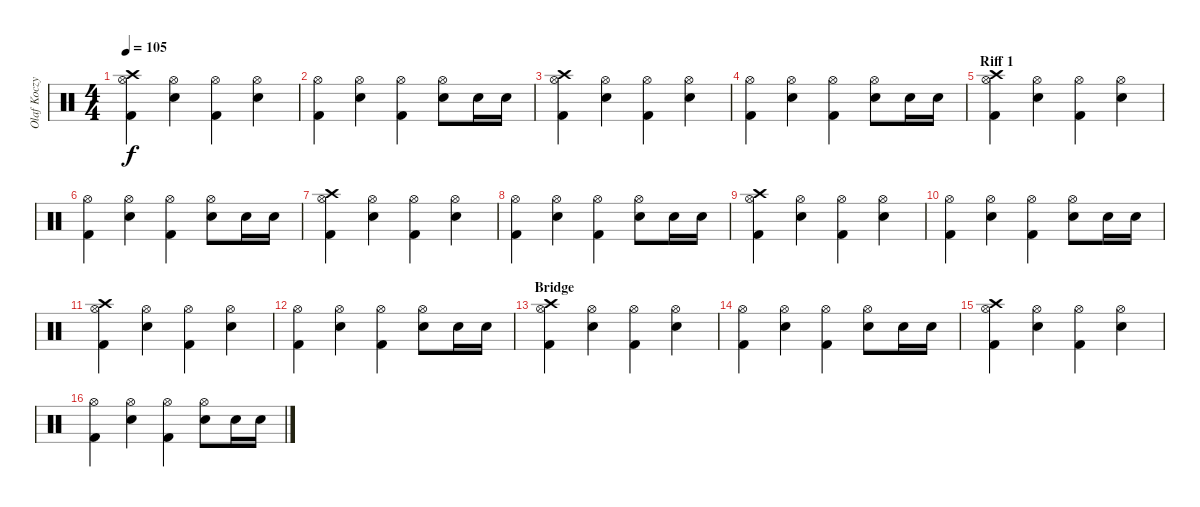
\track ("Olaf Koczy (drums)" "Olaf Koczy") {instrument percussion}
\staff {score}
\articulation defaults
\ts (4 4)
\tempo 105
\clef neutral
\ks c
("Crash high (hit)" "Hi-Hat (open)" "Kick (hit) 2").4{dy f} ("Hi-Hat (open)" "Snare (hit) 2").4 ("Hi-Hat (open)" "Kick (hit) 2").4 ("Hi-Hat (open)" "Snare (hit) 2").4 |
("Hi-Hat (open)" "Kick (hit) 2").4 ("Hi-Hat (open)" "Snare (hit) 2").4 ("Hi-Hat (open)" "Kick (hit) 2").4 ("Hi-Hat (open)" "Snare (hit) 2").8 "Snare (hit) 2".16 "Snare (hit) 2".16 |
("Crash high (hit)" "Hi-Hat (open)" "Kick (hit) 2").4 ("Hi-Hat (open)" "Snare (hit) 2").4 ("Hi-Hat (open)" "Kick (hit) 2").4 ("Hi-Hat (open)" "Snare (hit) 2").4 |
("Hi-Hat (open)" "Kick (hit) 2").4 ("Hi-Hat (open)" "Snare (hit) 2").4 ("Hi-Hat (open)" "Kick (hit) 2").4 ("Hi-Hat (open)" "Snare (hit) 2").8 "Snare (hit) 2".16 "Snare (hit) 2".16 |
\section ("" "Riff 1")
("Crash high (hit)" "Hi-Hat (open)" "Kick (hit) 2").4 ("Hi-Hat (open)" "Snare (hit) 2").4 ("Hi-Hat (open)" "Kick (hit) 2").4 ("Hi-Hat (open)" "Snare (hit) 2").4 |
("Hi-Hat (open)" "Kick (hit) 2").4 ("Hi-Hat (open)" "Snare (hit) 2").4 ("Hi-Hat (open)" "Kick (hit) 2").4 ("Hi-Hat (open)" "Snare (hit) 2").8 "Snare (hit) 2".16 "Snare (hit) 2".16 |
("Crash high (hit)" "Hi-Hat (open)" "Kick (hit) 2").4 ("Hi-Hat (open)" "Snare (hit) 2").4 ("Hi-Hat (open)" "Kick (hit) 2").4 ("Hi-Hat (open)" "Snare (hit) 2").4 |
("Hi-Hat (open)" "Kick (hit) 2").4 ("Hi-Hat (open)" "Snare (hit) 2").4 ("Hi-Hat (open)" "Kick (hit) 2").4 ("Hi-Hat (open)" "Snare (hit) 2").8 "Snare (hit) 2".16 "Snare (hit) 2".16 |
("Crash high (hit)" "Hi-Hat (open)" "Kick (hit) 2").4 ("Hi-Hat (open)" "Snare (hit) 2").4 ("Hi-Hat (open)" "Kick (hit) 2").4 ("Hi-Hat (open)" "Snare (hit) 2").4 |
("Hi-Hat (open)" "Kick (hit) 2").4 ("Hi-Hat (open)" "Snare (hit) 2").4 ("Hi-Hat (open)" "Kick (hit) 2").4 ("Hi-Hat (open)" "Snare (hit) 2").8 "Snare (hit) 2".16 "Snare (hit) 2".16 |
("Crash high (hit)" "Hi-Hat (open)" "Kick (hit) 2").4 ("Hi-Hat (open)" "Snare (hit) 2").4 ("Hi-Hat (open)" "Kick (hit) 2").4 ("Hi-Hat (open)" "Snare (hit) 2").4 |
("Hi-Hat (open)" "Kick (hit) 2").4 ("Hi-Hat (open)" "Snare (hit) 2").4 ("Hi-Hat (open)" "Kick (hit) 2").4 ("Hi-Hat (open)" "Snare (hit) 2").8 "Snare (hit) 2".16 "Snare (hit) 2".16 |
\section ("" "Bridge")
("Crash high (hit)" "Hi-Hat (open)" "Kick (hit) 2").4 ("Hi-Hat (open)" "Snare (hit) 2").4 ("Hi-Hat (open)" "Kick (hit) 2").4 ("Hi-Hat (open)" "Snare (hit) 2").4 |
("Hi-Hat (open)" "Kick (hit) 2").4 ("Hi-Hat (open)" "Snare (hit) 2").4 ("Hi-Hat (open)" "Kick (hit) 2").4 ("Hi-Hat (open)" "Snare (hit) 2").8 "Snare (hit) 2".16 "Snare (hit) 2".16 |
("Crash high (hit)" "Hi-Hat (open)" "Kick (hit) 2").4 ("Hi-Hat (open)" "Snare (hit) 2").4 ("Hi-Hat (open)" "Kick (hit) 2").4 ("Hi-Hat (open)" "Snare (hit) 2").4 |
("Hi-Hat (open)" "Kick (hit) 2").4 ("Hi-Hat (open)" "Snare (hit) 2").4 ("Hi-Hat (open)" "Kick (hit) 2").4 ("Hi-Hat (open)" "Snare (hit) 2").8 "Snare (hit) 2".16 "Snare (hit) 2".16
